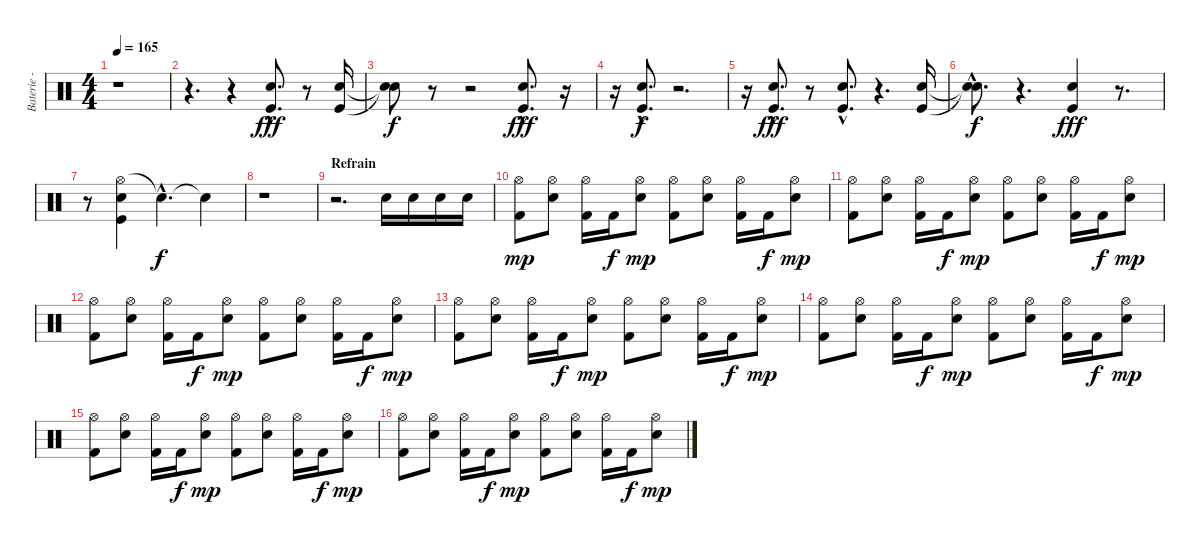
\track ("Baterie - Guillaume" "Baterie - ") {instrument percussion}
\staff {score}
\articulation defaults
\ts (4 4)
\tempo 165
\clef neutral
\ks c
r.1{dy fff} |
r.4{d} r.4 ("Snare (hit) 2"{hac} "Kick (hit)"{hac}).8{d} r.8 ("Snare (hit) 2" "Kick (hit)").16 |
("Snare (hit)"{t} "Snare (hit)"{t}).8{dy f} r.8 r.2 ("Snare (hit) 2"{hac} "Kick (hit)"{hac}).8{d dy fff} r.16 |
r.16 ("Snare (hit) 2"{hac} "Kick (hit)"{hac}).8{d dy f} r.2{d} |
r.16 ("Snare (hit) 2"{hac} "Kick (hit)"{hac}).8{d dy fff} r.8 ("Snare (hit) 2"{hac} "Kick (hit)"{hac}).8{d} r.4{d} ("Snare (hit) 2" "Kick (hit)").16 |
("Snare (hit)"{hac t} "Snare (hit)"{hac t}).8{d dy f} r.4{d} ("Snare (hit) 2" "Kick (hit)").4{dy fff} r.8{d} |
r.8 ("Hi-Hat (open)" "Snare (hit) 2" "Kick (hit)").4 "Snare (hit)"{hac t}.4{d dy f} "Snare (hit)"{t}.4 |
r.1 |
\section ("" "Refrain")
r.2{d} "Electric Snare (hit)".16 "Electric Snare (hit)".16 "Electric Snare (hit)".16 "Electric Snare (hit)".16 |
("Hi-Hat (open)" "Kick (hit) 2").8{dy mp} ("Hi-Hat (open)" "Electric Snare (hit)").8 ("Hi-Hat (open)" "Kick (hit) 2").16 "Kick (hit) 2".16{dy f} ("Hi-Hat (open)" "Electric Snare (hit)").8{dy mp} ("Hi-Hat (open)" "Kick (hit) 2").8 ("Hi-Hat (open)" "Electric Snare (hit)").8 ("Hi-Hat (open)" "Kick (hit) 2").16 "Kick (hit) 2".16{dy f} ("Hi-Hat (open)" "Electric Snare (hit)").8{dy mp} |
("Hi-Hat (open)" "Kick (hit) 2").8 ("Hi-Hat (open)" "Electric Snare (hit)").8 ("Hi-Hat (open)" "Kick (hit) 2").16 "Kick (hit) 2".16{dy f} ("Hi-Hat (open)" "Electric Snare (hit)").8{dy mp} ("Hi-Hat (open)" "Kick (hit) 2").8 ("Hi-Hat (open)" "Electric Snare (hit)").8 ("Hi-Hat (open)" "Kick (hit) 2").16 "Kick (hit) 2".16{dy f} ("Hi-Hat (open)" "Electric Snare (hit)").8{dy mp} |
("Hi-Hat (open)" "Kick (hit) 2").8 ("Hi-Hat (open)" "Electric Snare (hit)").8 ("Hi-Hat (open)" "Kick (hit) 2").16 "Kick (hit) 2".16{dy f} ("Hi-Hat (open)" "Electric Snare (hit)").8{dy mp} ("Hi-Hat (open)" "Kick (hit) 2").8 ("Hi-Hat (open)" "Electric Snare (hit)").8 ("Hi-Hat (open)" "Kick (hit) 2").16 "Kick (hit) 2".16{dy f} ("Hi-Hat (open)" "Electric Snare (hit)").8{dy mp} |
("Hi-Hat (open)" "Kick (hit) 2").8 ("Hi-Hat (open)" "Electric Snare (hit)").8 ("Hi-Hat (open)" "Kick (hit) 2").16 "Kick (hit) 2".16{dy f} ("Hi-Hat (open)" "Electric Snare (hit)").8{dy mp} ("Hi-Hat (open)" "Kick (hit) 2").8 ("Hi-Hat (open)" "Electric Snare (hit)").8 ("Hi-Hat (open)" "Kick (hit) 2").16 "Kick (hit) 2".16{dy f} ("Hi-Hat (open)" "Electric Snare (hit)").8{dy mp} |
("Hi-Hat (open)" "Kick (hit) 2").8 ("Hi-Hat (open)" "Electric Snare (hit)").8 ("Hi-Hat (open)" "Kick (hit) 2").16 "Kick (hit) 2".16{dy f} ("Hi-Hat (open)" "Electric Snare (hit)").8{dy mp} ("Hi-Hat (open)" "Kick (hit) 2").8 ("Hi-Hat (open)" "Electric Snare (hit)").8 ("Hi-Hat (open)" "Kick (hit) 2").16 "Kick (hit) 2".16{dy f} ("Hi-Hat (open)" "Electric Snare (hit)").8{dy mp} |
("Hi-Hat (open)" "Kick (hit) 2").8 ("Hi-Hat (open)" "Electric Snare (hit)").8 ("Hi-Hat (open)" "Kick (hit) 2").16 "Kick (hit) 2".16{dy f} ("Hi-Hat (open)" "Electric Snare (hit)").8{dy mp} ("Hi-Hat (open)" "Kick (hit) 2").8 ("Hi-Hat (open)" "Electric Snare (hit)").8 ("Hi-Hat (open)" "Kick (hit) 2").16 "Kick (hit) 2".16{dy f} ("Hi-Hat (open)" "Electric Snare (hit)").8{dy mp} |
("Hi-Hat (open)" "Kick (hit) 2").8 ("Hi-Hat (open)" "Electric Snare (hit)").8 ("Hi-Hat (open)" "Kick (hit) 2").16 "Kick (hit) 2".16{dy f} ("Hi-Hat (open)" "Electric Snare (hit)").8{dy mp} ("Hi-Hat (open)" "Kick (hit) 2").8 ("Hi-Hat (open)" "Electric Snare (hit)").8 ("Hi-Hat (open)" "Kick (hit) 2").16 "Kick (hit) 2".16{dy f} ("Hi-Hat (open)" "Electric Snare (hit)").8{dy mp}
